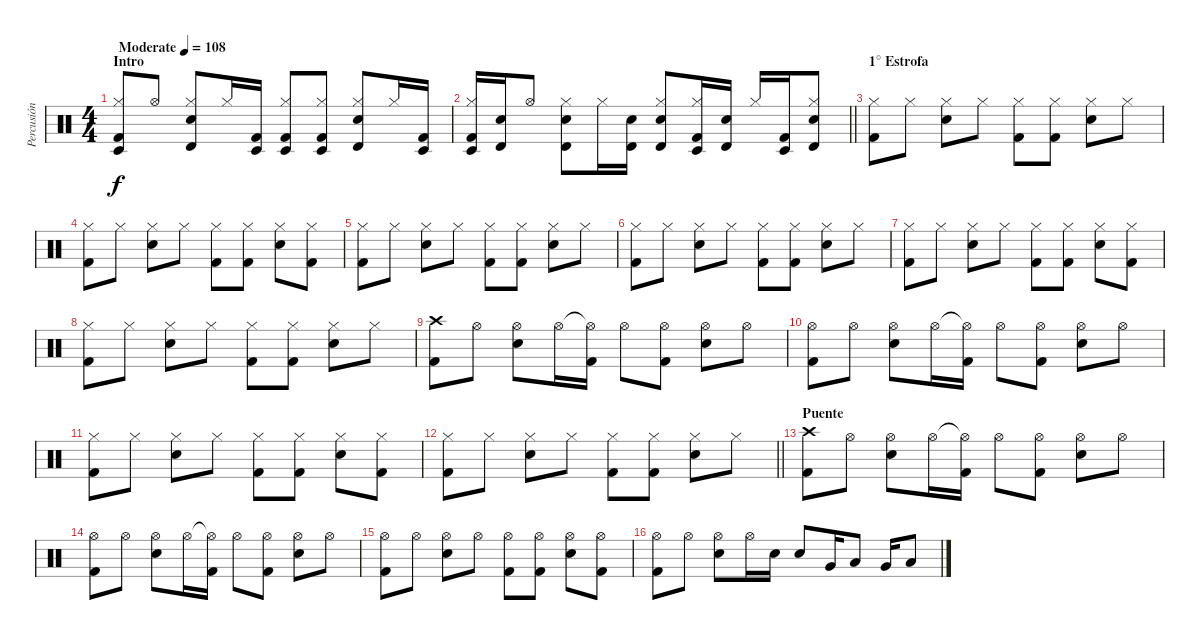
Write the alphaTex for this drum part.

\track ("Percusión" "Percusión") {instrument percussion}
\staff {score}
\articulation defaults
\ts (4 4)
\section ("" "Intro")
\tempo (108 "Moderate")
\clef neutral
\ks c
("Hi-Hat (closed)" "Kick (hit) 2" "Timbale low (hit)").8{dy f} "Hi-Hat (open)".8 ("Hi-Hat (closed)" "Electric Snare (hit)" "Timbale high (hit)").8 "Hi-Hat (closed)".16 ("Kick (hit) 2" "Timbale low (hit)").16 ("Hi-Hat (closed)" "Kick (hit) 2" "Timbale low (hit)").8 ("Hi-Hat (closed)" "Kick (hit) 2" "Timbale low (hit)").8 ("Hi-Hat (closed)" "Electric Snare (hit)" "Timbale high (hit)").8 "Hi-Hat (closed)".16 ("Kick (hit) 2" "Timbale low (hit)").16 |
\barLineRight lightlight
("Hi-Hat (closed)" "Kick (hit) 2" "Timbale low (hit)").16 ("Electric Snare (hit)" "Timbale high (hit)").16 "Hi-Hat (open)".8 ("Hi-Hat (closed)" "Electric Snare (hit)" "Timbale high (hit)").8 "Hi-Hat (closed)".16 ("Electric Snare (hit)" "Timbale high (hit)").16 ("Hi-Hat (closed)" "Electric Snare (hit)" "Timbale high (hit)").8 ("Hi-Hat (closed)" "Kick (hit) 2" "Timbale low (hit)").16 ("Electric Snare (hit)" "Timbale high (hit)").16 "Hi-Hat (closed)".16 ("Kick (hit) 2" "Timbale low (hit)").16 ("Hi-Hat (closed)" "Electric Snare (hit)" "Timbale high (hit)").8 |
\section ("" "1° Estrofa")
("Hi-Hat (closed)" "Kick (hit) 2").8 "Hi-Hat (closed)".8 ("Hi-Hat (closed)" "Electric Snare (hit)").8 "Hi-Hat (closed)".8 ("Hi-Hat (closed)" "Kick (hit) 2").8 ("Hi-Hat (closed)" "Kick (hit) 2").8 ("Hi-Hat (closed)" "Electric Snare (hit)").8 "Hi-Hat (closed)".8 |
("Hi-Hat (closed)" "Kick (hit) 2").8 "Hi-Hat (closed)".8 ("Hi-Hat (closed)" "Electric Snare (hit)").8 "Hi-Hat (closed)".8 ("Hi-Hat (closed)" "Kick (hit) 2").8 ("Hi-Hat (closed)" "Kick (hit) 2").8 ("Hi-Hat (closed)" "Electric Snare (hit)").8 ("Hi-Hat (closed)" "Kick (hit) 2").8 |
("Hi-Hat (closed)" "Kick (hit) 2").8 "Hi-Hat (closed)".8 ("Hi-Hat (closed)" "Electric Snare (hit)").8 "Hi-Hat (closed)".8 ("Hi-Hat (closed)" "Kick (hit) 2").8 ("Hi-Hat (closed)" "Kick (hit) 2").8 ("Hi-Hat (closed)" "Electric Snare (hit)").8 "Hi-Hat (closed)".8 |
("Hi-Hat (closed)" "Kick (hit) 2").8 "Hi-Hat (closed)".8 ("Hi-Hat (closed)" "Electric Snare (hit)").8 "Hi-Hat (closed)".8 ("Hi-Hat (closed)" "Kick (hit) 2").8 ("Hi-Hat (closed)" "Kick (hit) 2").8 ("Hi-Hat (closed)" "Electric Snare (hit)").8 "Hi-Hat (closed)".8 |
("Hi-Hat (closed)" "Kick (hit) 2").8 "Hi-Hat (closed)".8 ("Hi-Hat (closed)" "Electric Snare (hit)").8 "Hi-Hat (closed)".8 ("Hi-Hat (closed)" "Kick (hit) 2").8 ("Hi-Hat (closed)" "Kick (hit) 2").8 ("Hi-Hat (closed)" "Electric Snare (hit)").8 ("Hi-Hat (closed)" "Kick (hit) 2").8 |
("Hi-Hat (closed)" "Kick (hit) 2").8 "Hi-Hat (closed)".8 ("Hi-Hat (closed)" "Electric Snare (hit)").8 "Hi-Hat (closed)".8 ("Hi-Hat (closed)" "Kick (hit) 2").8 ("Hi-Hat (closed)" "Kick (hit) 2").8 ("Hi-Hat (closed)" "Electric Snare (hit)").8 "Hi-Hat (closed)".8 |
("Crash high (hit)" "Kick (hit) 2").8 "Hi-Hat (open)".8 ("Hi-Hat (open)" "Electric Snare (hit)").8 "Hi-Hat (open)".16 ("Hi-Hat (open)"{t} "Kick (hit) 2").16 "Hi-Hat (open)".8 ("Hi-Hat (open)" "Kick (hit) 2").8 ("Hi-Hat (open)" "Electric Snare (hit)").8 "Hi-Hat (open)".8 |
("Hi-Hat (open)" "Kick (hit) 2").8 "Hi-Hat (open)".8 ("Hi-Hat (open)" "Electric Snare (hit)").8 "Hi-Hat (open)".16 ("Hi-Hat (open)"{t} "Kick (hit) 2").16 "Hi-Hat (open)".8 ("Hi-Hat (open)" "Kick (hit) 2").8 ("Hi-Hat (open)" "Electric Snare (hit)").8 "Hi-Hat (open)".8 |
("Hi-Hat (closed)" "Kick (hit) 2").8 "Hi-Hat (closed)".8 ("Hi-Hat (closed)" "Electric Snare (hit)").8 "Hi-Hat (closed)".8 ("Hi-Hat (closed)" "Kick (hit) 2").8 ("Hi-Hat (closed)" "Kick (hit) 2").8 ("Hi-Hat (closed)" "Electric Snare (hit)").8 ("Hi-Hat (closed)" "Kick (hit) 2").8 |
\barLineRight lightlight
("Hi-Hat (closed)" "Kick (hit) 2").8 "Hi-Hat (closed)".8 ("Hi-Hat (closed)" "Electric Snare (hit)").8 "Hi-Hat (closed)".8 ("Hi-Hat (closed)" "Kick (hit) 2").8 ("Hi-Hat (closed)" "Kick (hit) 2").8 ("Hi-Hat (closed)" "Electric Snare (hit)").8 "Hi-Hat (closed)".8 |
\section ("" "Puente")
("Crash high (hit)" "Kick (hit) 2").8 "Hi-Hat (open)".8 ("Hi-Hat (open)" "Electric Snare (hit)").8 "Hi-Hat (open)".16 ("Hi-Hat (open)"{t} "Kick (hit) 2").16 "Hi-Hat (open)".8 ("Hi-Hat (open)" "Kick (hit) 2").8 ("Hi-Hat (open)" "Electric Snare (hit)").8 "Hi-Hat (open)".8 |
("Hi-Hat (open)" "Kick (hit) 2").8 "Hi-Hat (open)".8 ("Hi-Hat (open)" "Electric Snare (hit)").8 "Hi-Hat (open)".16 ("Hi-Hat (open)"{t} "Kick (hit) 2").16 "Hi-Hat (open)".8 ("Hi-Hat (open)" "Kick (hit) 2").8 ("Hi-Hat (open)" "Electric Snare (hit)").8 "Hi-Hat (open)".8 |
("Hi-Hat (open)" "Kick (hit) 2").8 "Hi-Hat (open)".8 ("Hi-Hat (open)" "Electric Snare (hit)").8 "Hi-Hat (open)".8 ("Hi-Hat (open)" "Kick (hit) 2").8 ("Hi-Hat (open)" "Kick (hit) 2").8 ("Hi-Hat (open)" "Electric Snare (hit)").8 ("Hi-Hat (open)" "Kick (hit) 2").8 |
("Hi-Hat (open)" "Kick (hit) 2").8 "Hi-Hat (open)".8 ("Hi-Hat (open)" "Electric Snare (hit)").8 "Hi-Hat (open)".16 "Electric Snare (hit)".16 "Electric Snare (hit)".8 "Very Low Tom (hit)".16 "Low Tom (hit)".8 "Very Low Tom (hit)".16 "Low Tom (hit)".8
